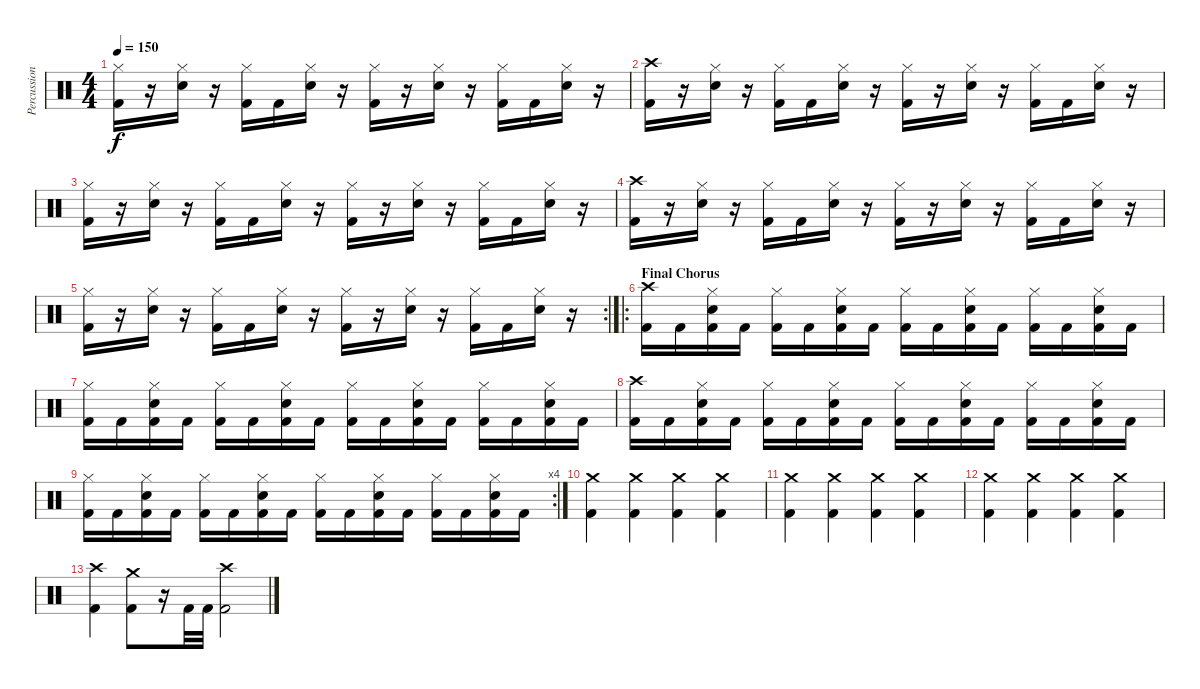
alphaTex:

\track ("Percussion" "Percussion") {instrument percussion}
\staff {score}
\articulation defaults
\ts (4 4)
\tempo 150
\clef neutral
\ks c
("Hi-Hat (closed)" "Kick (hit) 2").16{dy f} r.16 ("Hi-Hat (closed)" "Snare (hit) 2").16 r.16 ("Hi-Hat (closed)" "Kick (hit) 2").16 "Kick (hit) 2".16 ("Hi-Hat (closed)" "Snare (hit) 2").16 r.16 ("Hi-Hat (closed)" "Kick (hit) 2").16 r.16 ("Hi-Hat (closed)" "Snare (hit) 2").16 r.16 ("Hi-Hat (closed)" "Kick (hit) 2").16 "Kick (hit) 2".16 ("Hi-Hat (closed)" "Snare (hit) 2").16 r.16 |
("Crash high (hit)" "Kick (hit) 2").16 r.16 ("Hi-Hat (closed)" "Snare (hit) 2").16 r.16 ("Hi-Hat (closed)" "Kick (hit) 2").16 "Kick (hit) 2".16 ("Hi-Hat (closed)" "Snare (hit) 2").16 r.16 ("Hi-Hat (closed)" "Kick (hit) 2").16 r.16 ("Hi-Hat (closed)" "Snare (hit) 2").16 r.16 ("Hi-Hat (closed)" "Kick (hit) 2").16 "Kick (hit) 2".16 ("Hi-Hat (closed)" "Snare (hit) 2").16 r.16 |
("Hi-Hat (closed)" "Kick (hit) 2").16 r.16 ("Hi-Hat (closed)" "Snare (hit) 2").16 r.16 ("Hi-Hat (closed)" "Kick (hit) 2").16 "Kick (hit) 2".16 ("Hi-Hat (closed)" "Snare (hit) 2").16 r.16 ("Hi-Hat (closed)" "Kick (hit) 2").16 r.16 ("Hi-Hat (closed)" "Snare (hit) 2").16 r.16 ("Hi-Hat (closed)" "Kick (hit) 2").16 "Kick (hit) 2".16 ("Hi-Hat (closed)" "Snare (hit) 2").16 r.16 |
("Crash high (hit)" "Kick (hit) 2").16 r.16 ("Hi-Hat (closed)" "Snare (hit) 2").16 r.16 ("Hi-Hat (closed)" "Kick (hit) 2").16 "Kick (hit) 2".16 ("Hi-Hat (closed)" "Snare (hit) 2").16 r.16 ("Hi-Hat (closed)" "Kick (hit) 2").16 r.16 ("Hi-Hat (closed)" "Snare (hit) 2").16 r.16 ("Hi-Hat (closed)" "Kick (hit) 2").16 "Kick (hit) 2".16 ("Hi-Hat (closed)" "Snare (hit) 2").16 r.16 |
\rc 2
("Hi-Hat (closed)" "Kick (hit) 2").16 r.16 ("Hi-Hat (closed)" "Snare (hit) 2").16 r.16 ("Hi-Hat (closed)" "Kick (hit) 2").16 "Kick (hit) 2".16 ("Hi-Hat (closed)" "Snare (hit) 2").16 r.16 ("Hi-Hat (closed)" "Kick (hit) 2").16 r.16 ("Hi-Hat (closed)" "Snare (hit) 2").16 r.16 ("Hi-Hat (closed)" "Kick (hit) 2").16 "Kick (hit) 2".16 ("Hi-Hat (closed)" "Snare (hit) 2").16 r.16 |
\ro
\section ("" "Final Chorus")
("Crash high (hit)" "Kick (hit) 2").16 "Kick (hit) 2".16 ("Hi-Hat (closed)" "Snare (hit) 2" "Kick (hit) 2").16 "Kick (hit) 2".16 ("Hi-Hat (closed)" "Kick (hit) 2").16 "Kick (hit) 2".16 ("Hi-Hat (closed)" "Snare (hit) 2" "Kick (hit) 2").16 "Kick (hit) 2".16 ("Hi-Hat (closed)" "Kick (hit) 2").16 "Kick (hit) 2".16 ("Hi-Hat (closed)" "Snare (hit) 2" "Kick (hit) 2").16 "Kick (hit) 2".16 ("Hi-Hat (closed)" "Kick (hit) 2").16 "Kick (hit) 2".16 ("Hi-Hat (closed)" "Snare (hit) 2" "Kick (hit) 2").16 "Kick (hit) 2".16 |
("Hi-Hat (closed)" "Kick (hit) 2").16 "Kick (hit) 2".16 ("Hi-Hat (closed)" "Snare (hit) 2" "Kick (hit) 2").16 "Kick (hit) 2".16 ("Hi-Hat (closed)" "Kick (hit) 2").16 "Kick (hit) 2".16 ("Hi-Hat (closed)" "Snare (hit) 2" "Kick (hit) 2").16 "Kick (hit) 2".16 ("Hi-Hat (closed)" "Kick (hit) 2").16 "Kick (hit) 2".16 ("Hi-Hat (closed)" "Snare (hit) 2" "Kick (hit) 2").16 "Kick (hit) 2".16 ("Hi-Hat (closed)" "Kick (hit) 2").16 "Kick (hit) 2".16 ("Hi-Hat (closed)" "Snare (hit) 2" "Kick (hit) 2").16 "Kick (hit) 2".16 |
("Crash high (hit)" "Kick (hit) 2").16 "Kick (hit) 2".16 ("Hi-Hat (closed)" "Snare (hit) 2" "Kick (hit) 2").16 "Kick (hit) 2".16 ("Hi-Hat (closed)" "Kick (hit) 2").16 "Kick (hit) 2".16 ("Hi-Hat (closed)" "Snare (hit) 2" "Kick (hit) 2").16 "Kick (hit) 2".16 ("Hi-Hat (closed)" "Kick (hit) 2").16 "Kick (hit) 2".16 ("Hi-Hat (closed)" "Snare (hit) 2" "Kick (hit) 2").16 "Kick (hit) 2".16 ("Hi-Hat (closed)" "Kick (hit) 2").16 "Kick (hit) 2".16 ("Hi-Hat (closed)" "Snare (hit) 2" "Kick (hit) 2").16 "Kick (hit) 2".16 |
\rc 4
("Hi-Hat (closed)" "Kick (hit) 2").16 "Kick (hit) 2".16 ("Hi-Hat (closed)" "Snare (hit) 2" "Kick (hit) 2").16 "Kick (hit) 2".16 ("Hi-Hat (closed)" "Kick (hit) 2").16 "Kick (hit) 2".16 ("Hi-Hat (closed)" "Snare (hit) 2" "Kick (hit) 2").16 "Kick (hit) 2".16 ("Hi-Hat (closed)" "Kick (hit) 2").16 "Kick (hit) 2".16 ("Hi-Hat (closed)" "Snare (hit) 2" "Kick (hit) 2").16 "Kick (hit) 2".16 ("Hi-Hat (closed)" "Kick (hit) 2").16 "Kick (hit) 2".16 ("Hi-Hat (closed)" "Snare (hit) 2" "Kick (hit) 2").16 "Kick (hit) 2".16 |
("Crash medium (hit)" "Kick (hit) 2").4 ("Crash medium (hit)" "Kick (hit) 2").4 ("Crash medium (hit)" "Kick (hit) 2").4 ("Crash medium (hit)" "Kick (hit) 2").4 |
("Crash medium (hit)" "Kick (hit) 2").4 ("Crash medium (hit)" "Kick (hit) 2").4 ("Crash medium (hit)" "Kick (hit) 2").4 ("Crash medium (hit)" "Kick (hit) 2").4 |
("Crash medium (hit)" "Kick (hit) 2").4 ("Crash medium (hit)" "Kick (hit) 2").4 ("Crash medium (hit)" "Kick (hit) 2").4 ("Crash medium (hit)" "Kick (hit) 2").4 |
("Crash high (hit)" "Kick (hit) 2").4 ("Crash medium (hit)" "Kick (hit) 2").8 r.16 "Kick (hit) 2".32 "Kick (hit) 2".32 ("Crash high (hit)" "Kick (hit) 2").2
